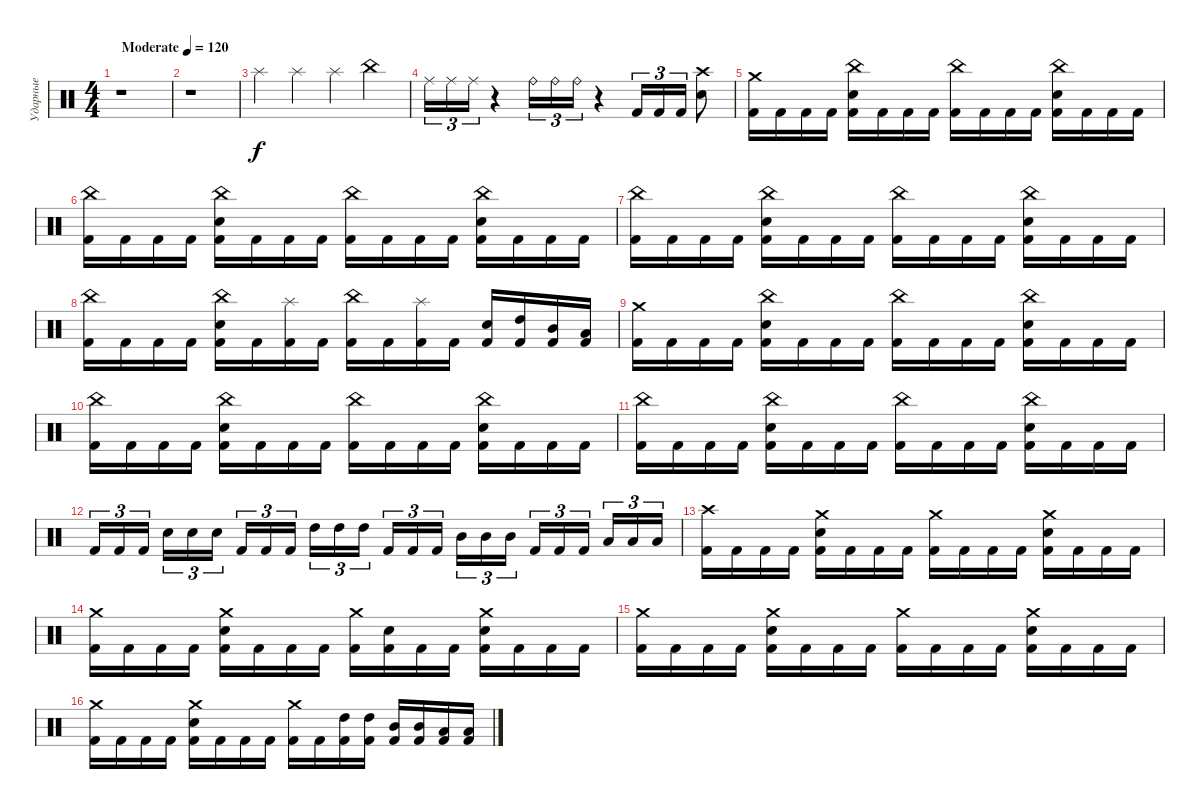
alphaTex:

\track ("Ударные" "Ударные") {instrument percussion}
\staff {score}
\articulation defaults
\ts (4 4)
\tempo (120 "Moderate")
\clef neutral
\ks c
r.1{dy f} |
r.1 |
"Splash (hit)".4 "Splash (hit)".4 "Splash (hit)".4 "China (hit)".4 |
"Ride (middle)".16{tu (3 2)} "Ride (middle)".16{tu (3 2)} "Ride (middle)".16{tu (3 2)} r.4 "Ride (bell)".16{tu (3 2)} "Ride (bell)".16{tu (3 2)} "Ride (bell)".16{tu (3 2)} r.4 "Kick (hit) 2".16{tu (3 2)} "Kick (hit) 2".16{tu (3 2)} "Kick (hit) 2".16{tu (3 2)} ("Crash high (hit)" "Electric Snare (hit)").8 |
("Crash medium (hit)" "Kick (hit) 2").16 "Kick (hit) 2".16 "Kick (hit) 2".16 "Kick (hit) 2".16 ("China (hit)" "Electric Snare (hit)" "Kick (hit) 2").16 "Kick (hit) 2".16 "Kick (hit) 2".16 "Kick (hit) 2".16 ("China (hit)" "Kick (hit) 2").16 "Kick (hit) 2".16 "Kick (hit) 2".16 "Kick (hit) 2".16 ("China (hit)" "Electric Snare (hit)" "Kick (hit) 2").16 "Kick (hit) 2".16 "Kick (hit) 2".16 "Kick (hit) 2".16 |
("China (hit)" "Kick (hit) 2").16 "Kick (hit) 2".16 "Kick (hit) 2".16 "Kick (hit) 2".16 ("China (hit)" "Electric Snare (hit)" "Kick (hit) 2").16 "Kick (hit) 2".16 "Kick (hit) 2".16 "Kick (hit) 2".16 ("China (hit)" "Kick (hit) 2").16 "Kick (hit) 2".16 "Kick (hit) 2".16 "Kick (hit) 2".16 ("China (hit)" "Electric Snare (hit)" "Kick (hit) 2").16 "Kick (hit) 2".16 "Kick (hit) 2".16 "Kick (hit) 2".16 |
("China (hit)" "Kick (hit) 2").16 "Kick (hit) 2".16 "Kick (hit) 2".16 "Kick (hit) 2".16 ("China (hit)" "Electric Snare (hit)" "Kick (hit) 2").16 "Kick (hit) 2".16 "Kick (hit) 2".16 "Kick (hit) 2".16 ("China (hit)" "Kick (hit) 2").16 "Kick (hit) 2".16 "Kick (hit) 2".16 "Kick (hit) 2".16 ("China (hit)" "Electric Snare (hit)" "Kick (hit) 2").16 "Kick (hit) 2".16 "Kick (hit) 2".16 "Kick (hit) 2".16 |
("China (hit)" "Kick (hit) 2").16 "Kick (hit) 2".16 "Kick (hit) 2".16 "Kick (hit) 2".16 ("China (hit)" "Electric Snare (hit)" "Kick (hit) 2").16 "Kick (hit) 2".16 ("Splash (hit)" "Kick (hit) 2").16 "Kick (hit) 2".16 ("China (hit)" "Kick (hit) 2").16 "Kick (hit) 2".16 ("Splash (hit)" "Kick (hit) 2").16 "Kick (hit) 2".16 ("Electric Snare (hit)" "Kick (hit) 2").16 ("High Tom (hit)" "Kick (hit) 2").16 ("Mid Tom (hit)" "Kick (hit) 2").16 ("Low Tom (hit)" "Kick (hit) 2").16 |
("Crash medium (hit)" "Kick (hit) 2").16 "Kick (hit) 2".16 "Kick (hit) 2".16 "Kick (hit) 2".16 ("China (hit)" "Electric Snare (hit)" "Kick (hit) 2").16 "Kick (hit) 2".16 "Kick (hit) 2".16 "Kick (hit) 2".16 ("China (hit)" "Kick (hit) 2").16 "Kick (hit) 2".16 "Kick (hit) 2".16 "Kick (hit) 2".16 ("China (hit)" "Electric Snare (hit)" "Kick (hit) 2").16 "Kick (hit) 2".16 "Kick (hit) 2".16 "Kick (hit) 2".16 |
("China (hit)" "Kick (hit) 2").16 "Kick (hit) 2".16 "Kick (hit) 2".16 "Kick (hit) 2".16 ("China (hit)" "Electric Snare (hit)" "Kick (hit) 2").16 "Kick (hit) 2".16 "Kick (hit) 2".16 "Kick (hit) 2".16 ("China (hit)" "Kick (hit) 2").16 "Kick (hit) 2".16 "Kick (hit) 2".16 "Kick (hit) 2".16 ("China (hit)" "Electric Snare (hit)" "Kick (hit) 2").16 "Kick (hit) 2".16 "Kick (hit) 2".16 "Kick (hit) 2".16 |
("China (hit)" "Kick (hit) 2").16 "Kick (hit) 2".16 "Kick (hit) 2".16 "Kick (hit) 2".16 ("China (hit)" "Electric Snare (hit)" "Kick (hit) 2").16 "Kick (hit) 2".16 "Kick (hit) 2".16 "Kick (hit) 2".16 ("China (hit)" "Kick (hit) 2").16 "Kick (hit) 2".16 "Kick (hit) 2".16 "Kick (hit) 2".16 ("China (hit)" "Electric Snare (hit)" "Kick (hit) 2").16 "Kick (hit) 2".16 "Kick (hit) 2".16 "Kick (hit) 2".16 |
"Kick (hit) 2".16{tu (3 2)} "Kick (hit) 2".16{tu (3 2)} "Kick (hit) 2".16{tu (3 2) beam splitsecondary} "Electric Snare (hit)".16{tu (3 2)} "Electric Snare (hit)".16{tu (3 2)} "Electric Snare (hit)".16{tu (3 2)} "Kick (hit) 2".16{tu (3 2)} "Kick (hit) 2".16{tu (3 2)} "Kick (hit) 2".16{tu (3 2) beam splitsecondary} "High Tom (hit)".16{tu (3 2)} "High Tom (hit)".16{tu (3 2)} "High Tom (hit)".16{tu (3 2)} "Kick (hit) 2".16{tu (3 2)} "Kick (hit) 2".16{tu (3 2)} "Kick (hit) 2".16{tu (3 2) beam splitsecondary} "Mid Tom (hit)".16{tu (3 2)} "Mid Tom (hit)".16{tu (3 2)} "Mid Tom (hit)".16{tu (3 2)} "Kick (hit) 2".16{tu (3 2)} "Kick (hit) 2".16{tu (3 2)} "Kick (hit) 2".16{tu (3 2) beam splitsecondary} "Low Tom (hit)".16{tu (3 2)} "Low Tom (hit)".16{tu (3 2)} "Low Tom (hit)".16{tu (3 2)} |
("Crash high (hit)" "Kick (hit) 2").16 "Kick (hit) 2".16 "Kick (hit) 2".16 "Kick (hit) 2".16 ("Crash medium (hit)" "Electric Snare (hit)" "Kick (hit) 2").16 "Kick (hit) 2".16 "Kick (hit) 2".16 "Kick (hit) 2".16 ("Crash medium (hit)" "Kick (hit) 2").16 "Kick (hit) 2".16 "Kick (hit) 2".16 "Kick (hit) 2".16 ("Crash medium (hit)" "Electric Snare (hit)" "Kick (hit) 2").16 "Kick (hit) 2".16 "Kick (hit) 2".16 "Kick (hit) 2".16 |
("Crash medium (hit)" "Kick (hit) 2").16 "Kick (hit) 2".16 "Kick (hit) 2".16 "Kick (hit) 2".16 ("Crash medium (hit)" "Electric Snare (hit)" "Kick (hit) 2").16 "Kick (hit) 2".16 "Kick (hit) 2".16 "Kick (hit) 2".16 ("Crash medium (hit)" "Kick (hit) 2").16 ("Electric Snare (hit)" "Kick (hit) 2").16 "Kick (hit) 2".16 "Kick (hit) 2".16 ("Crash medium (hit)" "Electric Snare (hit)" "Kick (hit) 2").16 "Kick (hit) 2".16 "Kick (hit) 2".16 "Kick (hit) 2".16 |
("Crash medium (hit)" "Kick (hit) 2").16 "Kick (hit) 2".16 "Kick (hit) 2".16 "Kick (hit) 2".16 ("Crash medium (hit)" "Electric Snare (hit)" "Kick (hit) 2").16 "Kick (hit) 2".16 "Kick (hit) 2".16 "Kick (hit) 2".16 ("Crash medium (hit)" "Kick (hit) 2").16 "Kick (hit) 2".16 "Kick (hit) 2".16 "Kick (hit) 2".16 ("Crash medium (hit)" "Electric Snare (hit)" "Kick (hit) 2").16 "Kick (hit) 2".16 "Kick (hit) 2".16 "Kick (hit) 2".16 |
("Crash medium (hit)" "Kick (hit) 2").16 "Kick (hit) 2".16 "Kick (hit) 2".16 "Kick (hit) 2".16 ("Crash medium (hit)" "Electric Snare (hit)" "Kick (hit) 2").16 "Kick (hit) 2".16 "Kick (hit) 2".16 "Kick (hit) 2".16 ("Crash medium (hit)" "Kick (hit) 2").16 "Kick (hit) 2".16 ("High Tom (hit)" "Kick (hit) 2").16 ("High Tom (hit)" "Kick (hit) 2").16 ("Mid Tom (hit)" "Kick (hit) 2").16 ("Mid Tom (hit)" "Kick (hit) 2").16 ("Low Tom (hit)" "Kick (hit) 2").16 ("Low Tom (hit)" "Kick (hit) 2").16
